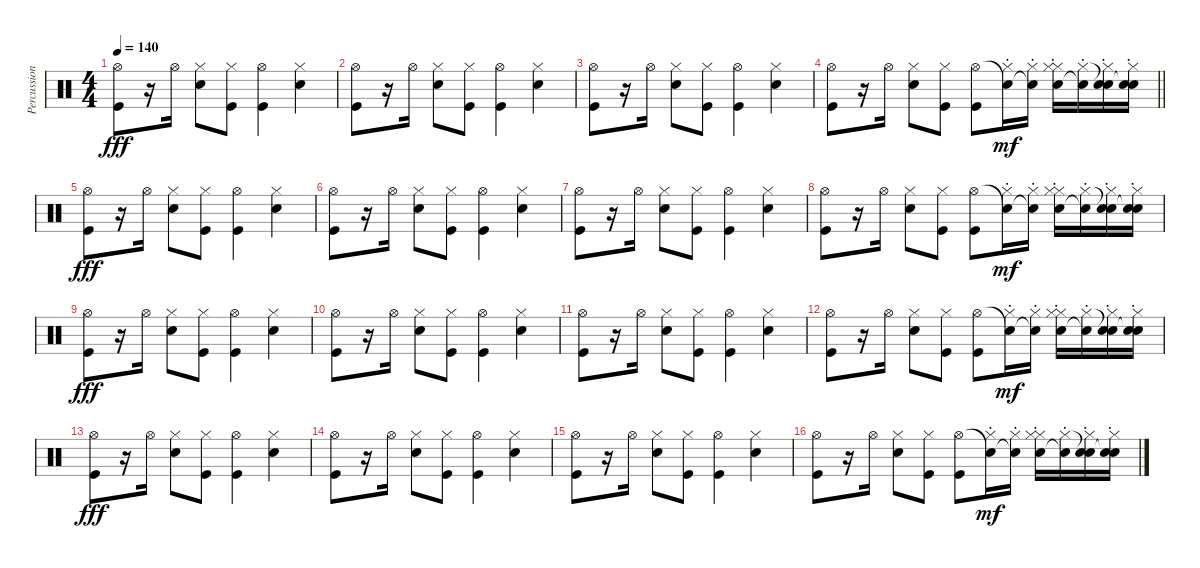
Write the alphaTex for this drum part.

\track ("Percussion" "Percussion") {instrument percussion}
\staff {score}
\articulation defaults
\ts (4 4)
\tempo 140
\clef neutral
\ks c
("Hi-Hat (open)" "Kick (hit)").8{dy fff volume 15} r.16 "Hi-Hat (open)".16 ("Snare (hit) 2" "Hi-Hat (closed)").8 ("Hi-Hat (closed)" "Kick (hit)").8 ("Hi-Hat (open)" "Kick (hit)").4 ("Snare (hit) 2" "Hi-Hat (closed)").4 |
("Hi-Hat (open)" "Kick (hit)").8 r.16 "Hi-Hat (open)".16 ("Snare (hit) 2" "Hi-Hat (closed)").8 ("Hi-Hat (closed)" "Kick (hit)").8 ("Hi-Hat (open)" "Kick (hit)").4 ("Snare (hit) 2" "Hi-Hat (closed)").4 |
("Hi-Hat (open)" "Kick (hit)").8 r.16 "Hi-Hat (open)".16 ("Snare (hit) 2" "Hi-Hat (closed)").8 ("Hi-Hat (closed)" "Kick (hit)").8 ("Hi-Hat (open)" "Kick (hit)").4 ("Snare (hit) 2" "Hi-Hat (closed)").4 |
\barLineRight lightlight
("Hi-Hat (open)" "Kick (hit)").8 r.16 "Hi-Hat (open)".16 ("Snare (hit) 2" "Hi-Hat (closed)").8 ("Hi-Hat (closed)" "Kick (hit)").8 ("Hi-Hat (open)" "Kick (hit)").8 ("Snare (hit)"{t} "Hi-Hat (closed)"{st}).16{dy mf} ("Snare (hit)"{t} "Hi-Hat (closed)"{st}).16 ("Snare (hit) 2" "Hi-Hat (closed)" "Hi-Hat (closed)"{st}).16 ("Snare (hit)"{t} "Hi-Hat (closed)"{st}).16 ("Snare (hit) 2" "Snare (hit)"{t} "Hi-Hat (closed)"{st}).16 ("Snare (hit) 2" "Snare (hit)"{t} "Hi-Hat (closed)"{st}).16 |
\section ("" "")
("Hi-Hat (open)" "Kick (hit)").8{dy fff volume 15} r.16 "Hi-Hat (open)".16 ("Snare (hit) 2" "Hi-Hat (closed)").8 ("Hi-Hat (closed)" "Kick (hit)").8 ("Hi-Hat (open)" "Kick (hit)").4 ("Snare (hit) 2" "Hi-Hat (closed)").4 |
("Hi-Hat (open)" "Kick (hit)").8 r.16 "Hi-Hat (open)".16 ("Snare (hit) 2" "Hi-Hat (closed)").8 ("Hi-Hat (closed)" "Kick (hit)").8 ("Hi-Hat (open)" "Kick (hit)").4 ("Snare (hit) 2" "Hi-Hat (closed)").4 |
("Hi-Hat (open)" "Kick (hit)").8 r.16 "Hi-Hat (open)".16 ("Snare (hit) 2" "Hi-Hat (closed)").8 ("Hi-Hat (closed)" "Kick (hit)").8 ("Hi-Hat (open)" "Kick (hit)").4 ("Snare (hit) 2" "Hi-Hat (closed)").4 |
("Hi-Hat (open)" "Kick (hit)").8 r.16 "Hi-Hat (open)".16 ("Snare (hit) 2" "Hi-Hat (closed)").8 ("Hi-Hat (closed)" "Kick (hit)").8 ("Hi-Hat (open)" "Kick (hit)").8 ("Snare (hit)"{t} "Hi-Hat (closed)"{st}).16{dy mf} ("Snare (hit)"{t} "Hi-Hat (closed)"{st}).16 ("Snare (hit) 2" "Hi-Hat (closed)" "Hi-Hat (closed)"{st}).16 ("Snare (hit)"{t} "Hi-Hat (closed)"{st}).16 ("Snare (hit) 2" "Snare (hit)"{t} "Hi-Hat (closed)"{st}).16 ("Snare (hit) 2" "Snare (hit)"{t} "Hi-Hat (closed)"{st}).16 |
("Hi-Hat (open)" "Kick (hit)").8{dy fff volume 15} r.16 "Hi-Hat (open)".16 ("Snare (hit) 2" "Hi-Hat (closed)").8 ("Hi-Hat (closed)" "Kick (hit)").8 ("Hi-Hat (open)" "Kick (hit)").4 ("Snare (hit) 2" "Hi-Hat (closed)").4 |
("Hi-Hat (open)" "Kick (hit)").8 r.16 "Hi-Hat (open)".16 ("Snare (hit) 2" "Hi-Hat (closed)").8 ("Hi-Hat (closed)" "Kick (hit)").8 ("Hi-Hat (open)" "Kick (hit)").4 ("Snare (hit) 2" "Hi-Hat (closed)").4 |
("Hi-Hat (open)" "Kick (hit)").8 r.16 "Hi-Hat (open)".16 ("Snare (hit) 2" "Hi-Hat (closed)").8 ("Hi-Hat (closed)" "Kick (hit)").8 ("Hi-Hat (open)" "Kick (hit)").4 ("Snare (hit) 2" "Hi-Hat (closed)").4 |
("Hi-Hat (open)" "Kick (hit)").8 r.16 "Hi-Hat (open)".16 ("Snare (hit) 2" "Hi-Hat (closed)").8 ("Hi-Hat (closed)" "Kick (hit)").8 ("Hi-Hat (open)" "Kick (hit)").8 ("Snare (hit)"{t} "Hi-Hat (closed)"{st}).16{dy mf} ("Snare (hit)"{t} "Hi-Hat (closed)"{st}).16 ("Snare (hit) 2" "Hi-Hat (closed)" "Hi-Hat (closed)"{st}).16 ("Snare (hit)"{t} "Hi-Hat (closed)"{st}).16 ("Snare (hit) 2" "Snare (hit)"{t} "Hi-Hat (closed)"{st}).16 ("Snare (hit) 2" "Snare (hit)"{t} "Hi-Hat (closed)"{st}).16 |
("Hi-Hat (open)" "Kick (hit)").8{dy fff volume 15} r.16 "Hi-Hat (open)".16 ("Snare (hit) 2" "Hi-Hat (closed)").8 ("Hi-Hat (closed)" "Kick (hit)").8 ("Hi-Hat (open)" "Kick (hit)").4 ("Snare (hit) 2" "Hi-Hat (closed)").4 |
("Hi-Hat (open)" "Kick (hit)").8 r.16 "Hi-Hat (open)".16 ("Snare (hit) 2" "Hi-Hat (closed)").8 ("Hi-Hat (closed)" "Kick (hit)").8 ("Hi-Hat (open)" "Kick (hit)").4 ("Snare (hit) 2" "Hi-Hat (closed)").4 |
("Hi-Hat (open)" "Kick (hit)").8 r.16 "Hi-Hat (open)".16 ("Snare (hit) 2" "Hi-Hat (closed)").8 ("Hi-Hat (closed)" "Kick (hit)").8 ("Hi-Hat (open)" "Kick (hit)").4 ("Snare (hit) 2" "Hi-Hat (closed)").4 |
("Hi-Hat (open)" "Kick (hit)").8 r.16 "Hi-Hat (open)".16 ("Snare (hit) 2" "Hi-Hat (closed)").8 ("Hi-Hat (closed)" "Kick (hit)").8 ("Hi-Hat (open)" "Kick (hit)").8 ("Snare (hit)"{t} "Hi-Hat (closed)"{st}).16{dy mf} ("Snare (hit)"{t} "Hi-Hat (closed)"{st}).16 ("Snare (hit) 2" "Hi-Hat (closed)" "Hi-Hat (closed)"{st}).16 ("Snare (hit)"{t} "Hi-Hat (closed)"{st}).16 ("Snare (hit) 2" "Snare (hit)"{t} "Hi-Hat (closed)"{st}).16 ("Snare (hit) 2" "Snare (hit)"{t} "Hi-Hat (closed)"{st}).16
